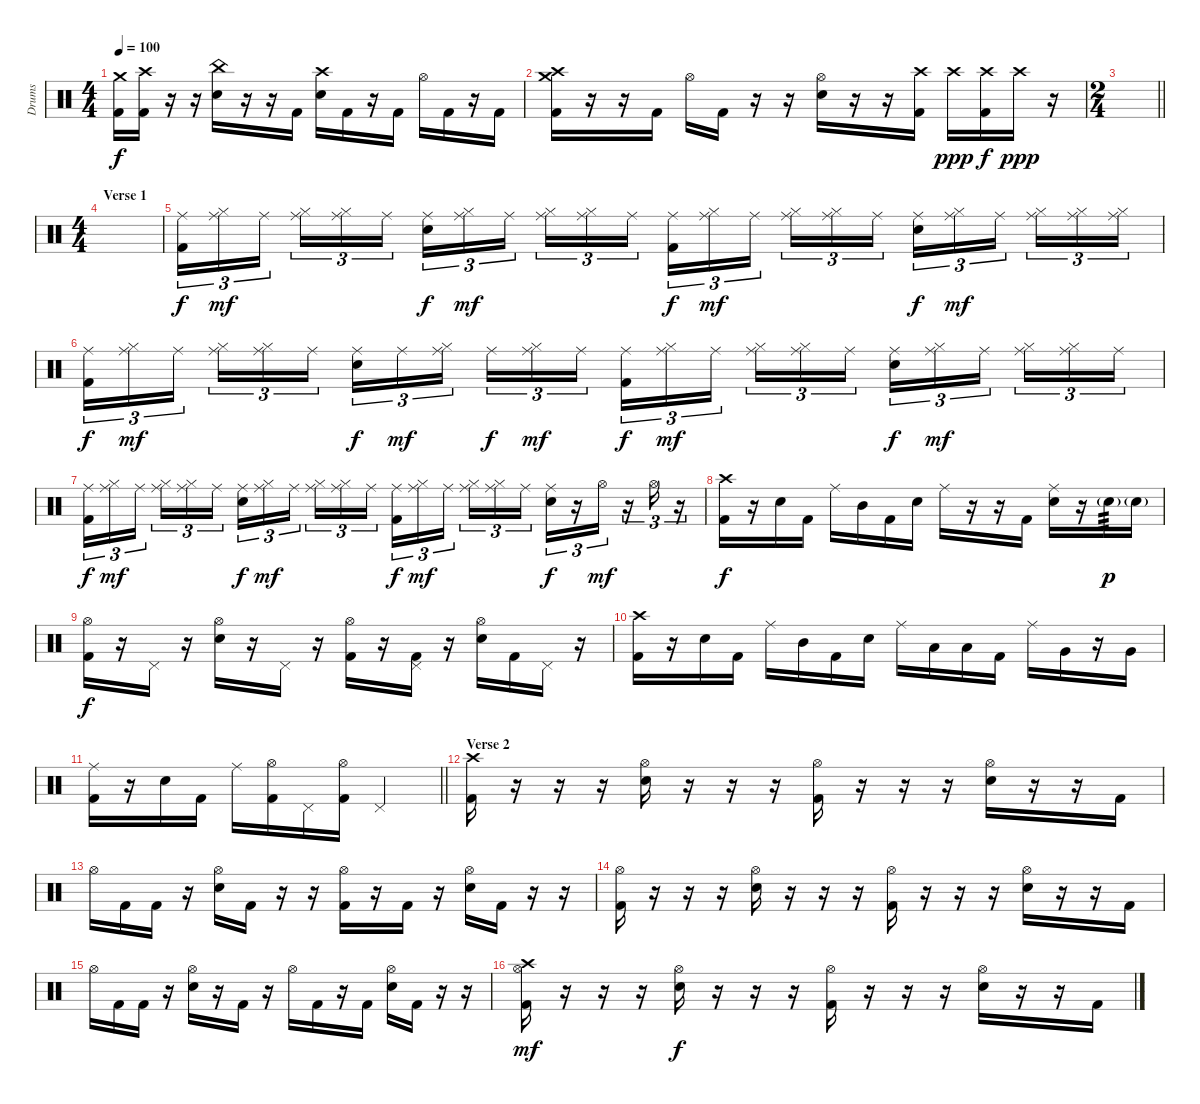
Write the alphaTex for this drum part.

\track ("Drums" "Drums") {instrument percussion}
\staff {score}
\articulation defaults
\ts (4 4)
\tempo 100
\clef neutral
\ks c
("Crash medium (hit)" "Kick (hit) 2").16{dy f} ("Crash high (hit)" "Kick (hit) 2").16 r.16 r.16 ("China (hit)" "Snare (hit) 2").16 r.16 r.16 "Kick (hit) 2".16 ("Crash high (hit)" "Snare (hit) 2").16 "Kick (hit) 2".16 r.16 "Kick (hit) 2".16 "Hi-Hat (open)".16 "Kick (hit) 2".16 r.16 "Kick (hit) 2".16 |
("Crash high (hit)" "Crash medium (hit)" "Kick (hit) 2").16 r.16 r.16 "Kick (hit) 2".16 "Hi-Hat (open)".16 "Kick (hit) 2".16 r.16 r.16 ("Hi-Hat (open)" "Snare (hit) 2").16 r.16 r.16 ("Crash high (hit)" "Kick (hit) 2").16 "Crash high (hit)".16{dy ppp} ("Crash high (hit)" "Kick (hit) 2").16{dy f} "Crash high (hit)".16{dy ppp} r.16 |
\ts (2 4)
\barLineRight lightlight
|
\ts (4 4)
\section ("" "Verse 1")
|
("Ride (middle)" "Kick (hit) 2").16{tu (3 2) dy f} ("Ride (middle)" "Hi-Hat (closed)").16{tu (3 2) dy mf} "Ride (middle)".16{tu (3 2) beam splitsecondary} ("Ride (middle)" "Hi-Hat (closed)").16{tu (3 2)} ("Ride (middle)" "Hi-Hat (closed)").16{tu (3 2)} "Ride (middle)".16{tu (3 2)} ("Ride (middle)" "Snare (hit) 2").16{tu (3 2) dy f} ("Ride (middle)" "Hi-Hat (closed)").16{tu (3 2) dy mf} "Ride (middle)".16{tu (3 2) beam splitsecondary} ("Ride (middle)" "Hi-Hat (closed)").16{tu (3 2)} ("Ride (middle)" "Hi-Hat (closed)").16{tu (3 2)} "Ride (middle)".16{tu (3 2)} ("Ride (middle)" "Kick (hit) 2").16{tu (3 2) dy f} ("Ride (middle)" "Hi-Hat (closed)").16{tu (3 2) dy mf} "Ride (middle)".16{tu (3 2) beam splitsecondary} ("Ride (middle)" "Hi-Hat (closed)").16{tu (3 2)} ("Ride (middle)" "Hi-Hat (closed)").16{tu (3 2)} "Ride (middle)".16{tu (3 2)} ("Ride (middle)" "Snare (hit) 2").16{tu (3 2) dy f} ("Ride (middle)" "Hi-Hat (closed)").16{tu (3 2) dy mf} "Ride (middle)".16{tu (3 2) beam splitsecondary} ("Ride (middle)" "Hi-Hat (closed)").16{tu (3 2)} ("Ride (middle)" "Hi-Hat (closed)").16{tu (3 2)} ("Ride (middle)" "Hi-Hat (closed)").16{tu (3 2)} |
("Ride (middle)" "Kick (hit) 2").16{tu (3 2) dy f} ("Ride (middle)" "Hi-Hat (closed)").16{tu (3 2) dy mf} "Ride (middle)".16{tu (3 2) beam splitsecondary} ("Ride (middle)" "Hi-Hat (closed)").16{tu (3 2)} ("Ride (middle)" "Hi-Hat (closed)").16{tu (3 2)} "Ride (middle)".16{tu (3 2)} ("Ride (middle)" "Snare (hit) 2").16{tu (3 2) dy f} "Ride (middle)".16{tu (3 2) dy mf} ("Ride (middle)" "Hi-Hat (closed)").16{tu (3 2) beam splitsecondary} "Ride (middle)".16{tu (3 2) dy f} ("Ride (middle)" "Hi-Hat (closed)").16{tu (3 2) dy mf} "Ride (middle)".16{tu (3 2)} ("Ride (middle)" "Kick (hit) 2").16{tu (3 2) dy f} ("Ride (middle)" "Hi-Hat (closed)").16{tu (3 2) dy mf} "Ride (middle)".16{tu (3 2) beam splitsecondary} ("Ride (middle)" "Hi-Hat (closed)").16{tu (3 2)} ("Ride (middle)" "Hi-Hat (closed)").16{tu (3 2)} "Ride (middle)".16{tu (3 2)} ("Ride (middle)" "Snare (hit) 2").16{tu (3 2) dy f} ("Ride (middle)" "Hi-Hat (closed)").16{tu (3 2) dy mf} "Ride (middle)".16{tu (3 2) beam splitsecondary} ("Ride (middle)" "Hi-Hat (closed)").16{tu (3 2)} ("Ride (middle)" "Hi-Hat (closed)").16{tu (3 2)} "Ride (middle)".16{tu (3 2)} |
("Ride (middle)" "Kick (hit) 2").16{tu (3 2) dy f} ("Ride (middle)" "Hi-Hat (closed)").16{tu (3 2) dy mf} "Ride (middle)".16{tu (3 2) beam splitsecondary} ("Ride (middle)" "Hi-Hat (closed)").16{tu (3 2)} ("Ride (middle)" "Hi-Hat (closed)").16{tu (3 2)} "Ride (middle)".16{tu (3 2)} ("Ride (middle)" "Snare (hit) 2").16{tu (3 2) dy f} ("Ride (middle)" "Hi-Hat (closed)").16{tu (3 2) dy mf} "Ride (middle)".16{tu (3 2) beam splitsecondary} ("Ride (middle)" "Hi-Hat (closed)").16{tu (3 2)} ("Ride (middle)" "Hi-Hat (closed)").16{tu (3 2)} "Ride (middle)".16{tu (3 2)} ("Ride (middle)" "Kick (hit) 2").16{tu (3 2) dy f} ("Ride (middle)" "Hi-Hat (closed)").16{tu (3 2) dy mf} "Ride (middle)".16{tu (3 2) beam splitsecondary} ("Ride (middle)" "Hi-Hat (closed)").16{tu (3 2)} ("Ride (middle)" "Hi-Hat (closed)").16{tu (3 2)} "Ride (middle)".16{tu (3 2)} ("Ride (middle)" "Snare (hit) 2").16{tu (3 2) dy f} r.16{tu (3 2)} "Hi-Hat (open)".16{tu (3 2) dy mf} r.16{tu (3 2)} "Hi-Hat (open)".16{tu (3 2)} r.16{tu (3 2)} |
("Crash high (hit)" "Kick (hit) 2").16{dy f} r.16 "Snare (hit) 2".16 "Kick (hit) 2".16 "Ride (middle)".16 "Mid Tom (hit)".16 "Kick (hit) 2".16 "Snare (hit) 2".16 "Ride (middle)".16 r.16 r.16 "Kick (hit) 2".16 ("Ride (middle)" "Snare (hit) 2").16 r.16 "Snare (hit) 2"{g}.16{tp 3 dy p} "Snare (hit) 2"{g}.16 |
("Hi-Hat (open)" "Kick (hit) 2").16{dy f} r.16 "Pedal Hi-Hat (hit)".16 r.16 ("Hi-Hat (open)" "Snare (hit) 2").16 r.16 "Pedal Hi-Hat (hit)".16 r.16 ("Hi-Hat (open)" "Kick (hit) 2").16 r.16 ("Pedal Hi-Hat (hit)" "Kick (hit) 2").16 r.16 ("Hi-Hat (open)" "Snare (hit) 2").16 "Kick (hit) 2".16 "Pedal Hi-Hat (hit)".16 r.16 |
("Crash high (hit)" "Kick (hit) 2").16 r.16 "Snare (hit) 2".16 "Kick (hit) 2".16 "Ride (middle)".16 "Mid Tom (hit)".16 "Kick (hit) 2".16 "Snare (hit) 2".16 "Ride (middle)".16 "Low Tom (hit)".16 "Low Tom (hit)".16 "Kick (hit) 2".16 "Ride (middle)".16 "Very Low Tom (hit)".16 r.16 "Very Low Tom (hit)".16 |
\barLineRight lightlight
("Ride (middle)" "Kick (hit) 2").16 r.16 "Snare (hit) 2".16 "Kick (hit) 2".16 "Ride (middle)".16 ("Hi-Hat (open)" "Kick (hit) 2").16 "Pedal Hi-Hat (hit)".16 ("Hi-Hat (open)" "Kick (hit) 2").16 "Pedal Hi-Hat (hit)".2 |
\section ("" "Verse 2")
("Crash high (hit)" "Kick (hit) 2").16 r.16 r.16 r.16 ("Hi-Hat (open)" "Snare (hit) 2").16 r.16 r.16 r.16 ("Hi-Hat (open)" "Kick (hit) 2").16 r.16 r.16 r.16 ("Hi-Hat (open)" "Snare (hit) 2").16 r.16 r.16 "Kick (hit) 2".16 |
"Hi-Hat (open)".16 "Kick (hit) 2".16 "Kick (hit) 2".16 r.16 ("Hi-Hat (open)" "Snare (hit) 2").16 "Kick (hit) 2".16 r.16 r.16 ("Hi-Hat (open)" "Kick (hit) 2").16 r.16 "Kick (hit) 2".16 r.16 ("Hi-Hat (open)" "Snare (hit) 2").16 "Kick (hit) 2".16 r.16 r.16 |
("Hi-Hat (open)" "Kick (hit) 2").16 r.16 r.16 r.16 ("Hi-Hat (open)" "Snare (hit) 2").16 r.16 r.16 r.16 ("Hi-Hat (open)" "Kick (hit) 2").16 r.16 r.16 r.16 ("Hi-Hat (open)" "Snare (hit) 2").16 r.16 r.16 "Kick (hit) 2".16 |
"Hi-Hat (open)".16 "Kick (hit) 2".16 "Kick (hit) 2".16 r.16 ("Hi-Hat (open)" "Snare (hit) 2").16 r.16 "Kick (hit) 2".16 r.16 "Hi-Hat (open)".16 "Kick (hit) 2".16 r.16 "Kick (hit) 2".16 ("Hi-Hat (open)" "Snare (hit) 2").16 "Kick (hit) 2".16 r.16 r.16 |
("Crash high (hit)" "Hi-Hat (open)" "Kick (hit) 2").16{dy mf} r.16 r.16 r.16 ("Hi-Hat (open)" "Snare (hit) 2").16{dy f} r.16 r.16 r.16 ("Hi-Hat (open)" "Kick (hit) 2").16 r.16 r.16 r.16 ("Hi-Hat (open)" "Snare (hit) 2").16 r.16 r.16 "Kick (hit) 2".16
